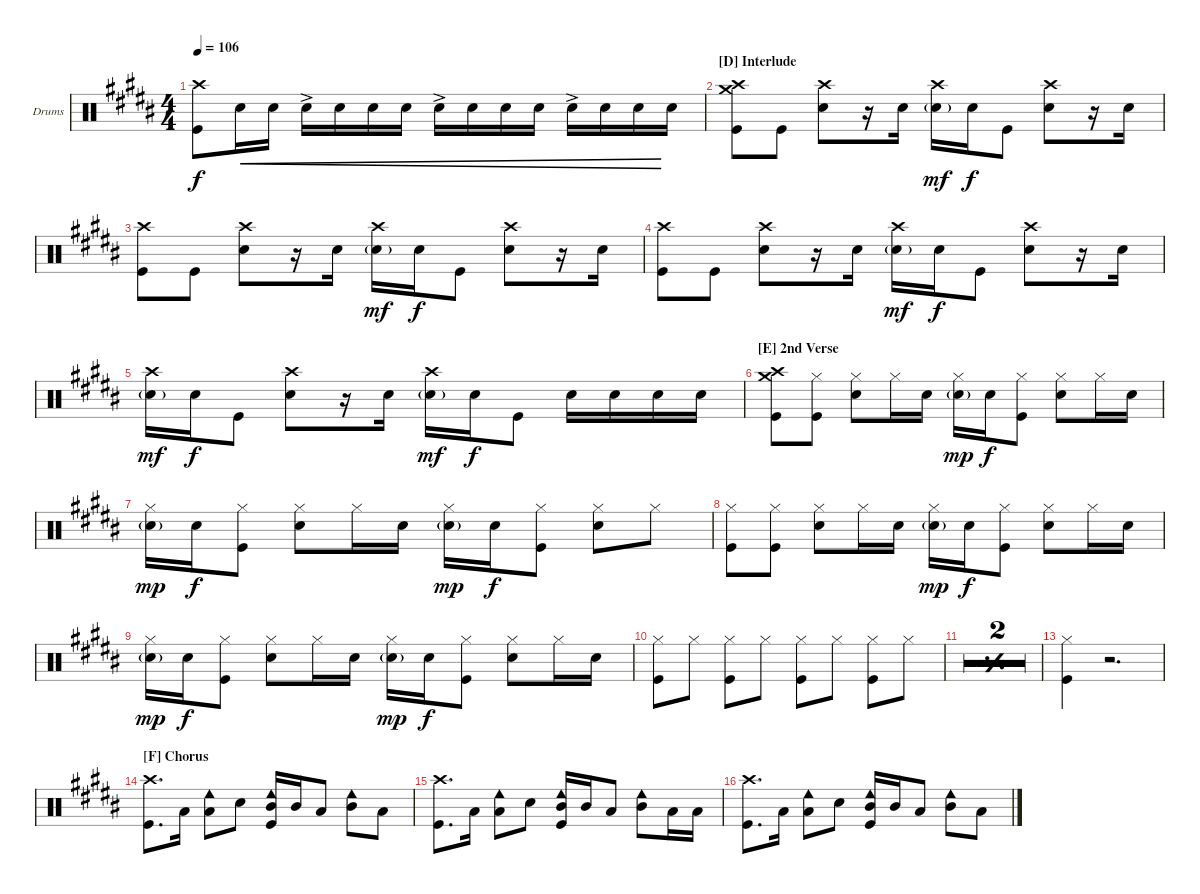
\defaultSystemsLayout 4
\bracketExtendMode groupsimilarinstruments
\firstSystemTrackNameOrientation horizontal
\otherSystemsTrackNameOrientation horizontal
\track ("Dominic Boyce (Drums)" "Drums") {multiBarRest instrument percussion}
\staff {score}
\articulation defaults
\ts (4 4)
\tempo 106
\clef neutral
\ks b
("Crash high (hit)" "Kick (hit)").8{dy f} "Snare (hit) 2".16{cre} "Snare (hit) 2".16{cre} "Snare (hit) 2"{ac}.16{cre} "Snare (hit) 2".16{cre} "Snare (hit) 2".16{cre} "Snare (hit) 2".16{cre} "Snare (hit) 2"{ac}.16{cre} "Snare (hit) 2".16{cre} "Snare (hit) 2".16{cre} "Snare (hit) 2".16{cre} "Snare (hit) 2"{ac}.16{cre} "Snare (hit) 2".16{cre} "Snare (hit) 2".16{cre} "Snare (hit) 2".16 |
\section ("D" "Interlude")
("Kick (hit)" "Crash high (hit)" "Crash medium (hit)").8 "Kick (hit)".8 ("Snare (hit) 2" "Crash high (hit)").8 r.16 "Snare (hit) 2".16 ("Snare (hit) 2"{g} "Crash high (hit)").16{dy mf} "Snare (hit) 2".16{dy f} "Kick (hit)".8 ("Snare (hit) 2" "Crash high (hit)").8 r.16 "Snare (hit) 2".16 |
("Kick (hit)" "Crash high (hit)").8 "Kick (hit)".8 ("Snare (hit) 2" "Crash high (hit)").8 r.16 "Snare (hit) 2".16 ("Snare (hit) 2"{g} "Crash high (hit)").16{dy mf} "Snare (hit) 2".16{dy f} "Kick (hit)".8 ("Snare (hit) 2" "Crash high (hit)").8 r.16 "Snare (hit) 2".16 |
("Kick (hit)" "Crash high (hit)").8 "Kick (hit)".8 ("Snare (hit) 2" "Crash high (hit)").8 r.16 "Snare (hit) 2".16 ("Snare (hit) 2"{g} "Crash high (hit)").16{dy mf} "Snare (hit) 2".16{dy f} "Kick (hit)".8 ("Snare (hit) 2" "Crash high (hit)").8 r.16 "Snare (hit) 2".16 |
("Snare (hit) 2"{g} "Crash high (hit)").16{dy mf} "Snare (hit) 2".16{dy f} "Kick (hit)".8 ("Snare (hit) 2" "Crash high (hit)").8 r.16 "Snare (hit) 2".16 ("Snare (hit) 2"{g} "Crash high (hit)").16{dy mf} "Snare (hit) 2".16{dy f} "Kick (hit)".8 "Snare (hit) 2".16 "Snare (hit) 2".16 "Snare (hit) 2".16 "Snare (hit) 2".16 |
\section ("E" "2nd Verse")
("Kick (hit)" "Crash high (hit)" "Crash medium (hit)").8 ("Kick (hit)" "Hi-Hat (closed)").8 ("Snare (hit) 2" "Hi-Hat (closed)").8 "Hi-Hat (closed)".16 "Snare (hit) 2".16 ("Snare (hit) 2"{g} "Hi-Hat (closed)").16{dy mp} "Snare (hit) 2".16{dy f} ("Kick (hit)" "Hi-Hat (closed)").8 ("Snare (hit) 2" "Hi-Hat (closed)").8 "Hi-Hat (closed)".16 "Snare (hit) 2".16 |
("Snare (hit) 2"{g} "Hi-Hat (closed)").16{dy mp} "Snare (hit) 2".16{dy f} ("Kick (hit)" "Hi-Hat (closed)").8 ("Snare (hit) 2" "Hi-Hat (closed)").8 "Hi-Hat (closed)".16 "Snare (hit) 2".16 ("Snare (hit) 2"{g} "Hi-Hat (closed)").16{dy mp} "Snare (hit) 2".16{dy f} ("Kick (hit)" "Hi-Hat (closed)").8 ("Snare (hit) 2" "Hi-Hat (closed)").8 "Hi-Hat (closed)".8 |
("Kick (hit)" "Hi-Hat (closed)").8 ("Kick (hit)" "Hi-Hat (closed)").8 ("Snare (hit) 2" "Hi-Hat (closed)").8 "Hi-Hat (closed)".16 "Snare (hit) 2".16 ("Snare (hit) 2"{g} "Hi-Hat (closed)").16{dy mp} "Snare (hit) 2".16{dy f} ("Kick (hit)" "Hi-Hat (closed)").8 ("Snare (hit) 2" "Hi-Hat (closed)").8 "Hi-Hat (closed)".16 "Snare (hit) 2".16 |
("Snare (hit) 2"{g} "Hi-Hat (closed)").16{dy mp} "Snare (hit) 2".16{dy f} ("Kick (hit)" "Hi-Hat (closed)").8 ("Snare (hit) 2" "Hi-Hat (closed)").8 "Hi-Hat (closed)".16 "Snare (hit) 2".16 ("Snare (hit) 2"{g} "Hi-Hat (closed)").16{dy mp} "Snare (hit) 2".16{dy f} ("Kick (hit)" "Hi-Hat (closed)").8 ("Snare (hit) 2" "Hi-Hat (closed)").8 "Hi-Hat (closed)".16 "Snare (hit) 2".16 |
("Kick (hit)" "Hi-Hat (closed)").8 "Hi-Hat (closed)".8 ("Kick (hit)" "Hi-Hat (closed)").8 "Hi-Hat (closed)".8 ("Kick (hit)" "Hi-Hat (closed)").8 "Hi-Hat (closed)".8 ("Kick (hit)" "Hi-Hat (closed)").8 "Hi-Hat (closed)".8 |
\simile simple
|
|
\simile none
("Kick (hit)" "Hi-Hat (closed)").4 r.2{d} |
\section ("F" "Chorus")
("Crash high (hit)" "Kick (hit)").8{d} "Low Tom (hit)".16 ("Low Tom (hit)" "Cowbell low (hit)").8 "Snare (hit) 2".8 ("Mid Tom (hit)" "Kick (hit)" "Cowbell low (hit)").16 "Mid Tom (hit)".16 "Low Tom (hit)".8 ("Mid Tom (hit)" "Cowbell low (hit)").8 "Low Tom (hit)".8 |
("Crash high (hit)" "Kick (hit)").8{d} "Low Tom (hit)".16 ("Low Tom (hit)" "Cowbell low (hit)").8 "Snare (hit) 2".8 ("Mid Tom (hit)" "Kick (hit)" "Cowbell low (hit)").16 "Mid Tom (hit)".16 "Low Tom (hit)".8 ("Mid Tom (hit)" "Cowbell low (hit)").8 "Low Tom (hit)".16 "Low Tom (hit)".16 |
("Crash high (hit)" "Kick (hit)").8{d} "Low Tom (hit)".16 ("Low Tom (hit)" "Cowbell low (hit)").8 "Snare (hit) 2".8 ("Mid Tom (hit)" "Kick (hit)" "Cowbell low (hit)").16 "Mid Tom (hit)".16 "Low Tom (hit)".8 ("Mid Tom (hit)" "Cowbell low (hit)").8 "Low Tom (hit)".8
